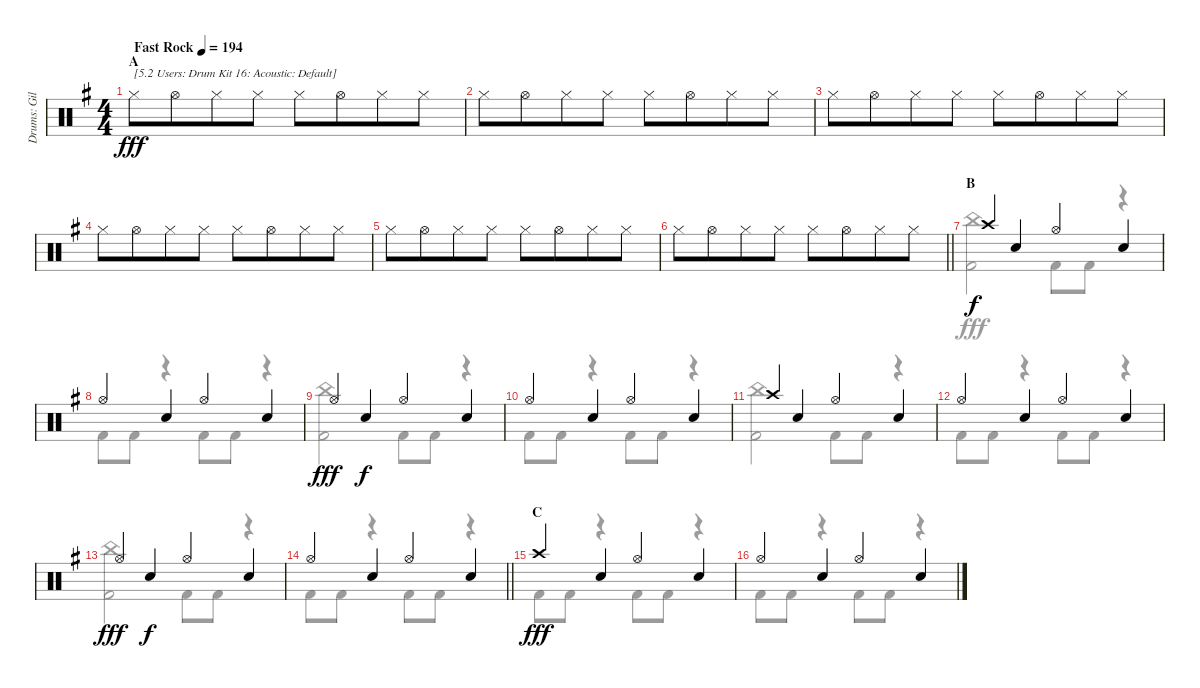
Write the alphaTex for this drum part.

\track ("Drums: Gil" "Drums: Gil") {instrument percussion}
\staff {score}
\articulation defaults
\voice
\ts (4 4)
\section ("" "A")
\tempo (194 "Fast Rock")
\clef neutral
\ks g "Hi-Hat (closed)".8{txt "[5.2 Users: Drum Kit 16: Acoustic: Default]" dy fff volume 0} "Hi-Hat (open)".8{beam merge} "Hi-Hat (closed)".8 "Hi-Hat (closed)".8 "Hi-Hat (closed)".8{volume 12} "Hi-Hat (open)".8{beam merge} "Hi-Hat (closed)".8 "Hi-Hat (closed)".8
|
"Hi-Hat (closed)".8 "Hi-Hat (open)".8{beam merge} "Hi-Hat (closed)".8 "Hi-Hat (closed)".8 "Hi-Hat (closed)".8 "Hi-Hat (open)".8{beam merge} "Hi-Hat (closed)".8 "Hi-Hat (closed)".8 |
"Hi-Hat (closed)".8 "Hi-Hat (open)".8{beam merge} "Hi-Hat (closed)".8 "Hi-Hat (closed)".8 "Hi-Hat (closed)".8 "Hi-Hat (open)".8{beam merge} "Hi-Hat (closed)".8 "Hi-Hat (closed)".8 |
"Hi-Hat (closed)".8 "Hi-Hat (open)".8{beam merge} "Hi-Hat (closed)".8 "Hi-Hat (closed)".8 "Hi-Hat (closed)".8 "Hi-Hat (open)".8{beam merge} "Hi-Hat (closed)".8 "Hi-Hat (closed)".8 |
"Hi-Hat (closed)".8 "Hi-Hat (open)".8{beam merge} "Hi-Hat (closed)".8 "Hi-Hat (closed)".8 "Hi-Hat (closed)".8 "Hi-Hat (open)".8{beam merge} "Hi-Hat (closed)".8 "Hi-Hat (closed)".8 |
\barLineRight lightlight "Hi-Hat (closed)".8 "Hi-Hat (open)".8{beam merge} "Hi-Hat (closed)".8 "Hi-Hat (closed)".8 "Hi-Hat (closed)".8 "Hi-Hat (open)".8{beam merge} "Hi-Hat (closed)".8 "Hi-Hat (closed)".8
|
\section ("" "B")
"Crash high (hit)".4{dy f} "Snare (hit) 2".4 "Hi-Hat (open)".4 "Snare (hit) 2".4 |
"Hi-Hat (open)".4 "Snare (hit) 2".4 "Hi-Hat (open)".4 "Snare (hit) 2".4 |
"Hi-Hat (open)".4{dy fff} "Snare (hit) 2".4{dy f} "Hi-Hat (open)".4 "Snare (hit) 2".4 |
"Hi-Hat (open)".4 "Snare (hit) 2".4 "Hi-Hat (open)".4 "Snare (hit) 2".4 |
"Crash high (hit)".4 "Snare (hit) 2".4 "Hi-Hat (open)".4 "Snare (hit) 2".4 |
"Hi-Hat (open)".4 "Snare (hit) 2".4 "Hi-Hat (open)".4 "Snare (hit) 2".4 |
"Hi-Hat (open)".4{dy fff} "Snare (hit) 2".4{dy f} "Hi-Hat (open)".4 "Snare (hit) 2".4 |
\barLineRight lightlight "Hi-Hat (open)".4 "Snare (hit) 2".4 "Hi-Hat (open)".4 "Snare (hit) 2".4
|
\section ("" "C")
"Crash high (hit)".4{dy fff} "Snare (hit) 2".4 "Hi-Hat (open)".4 "Snare (hit) 2".4 |
"Hi-Hat (open)".4 "Snare (hit) 2".4 "Hi-Hat (open)".4 "Snare (hit) 2".4
\voice
\clef neutral
\ottava regular
\simile none
\ks g
|
|
|
|
|
\barLineRight lightlight
|
("China (hit)" "Kick (hit) 2").2 "Kick (hit) 2".8 "Kick (hit) 2".8{beam merge} r.4 |
"Kick (hit) 2".8 "Kick (hit) 2".8 r.4 "Kick (hit) 2".8 "Kick (hit) 2".8 r.4 |
("China (hit)" "Kick (hit) 2").2 "Kick (hit) 2".8 "Kick (hit) 2".8{beam merge} r.4 |
"Kick (hit) 2".8 "Kick (hit) 2".8 r.4 "Kick (hit) 2".8 "Kick (hit) 2".8 r.4 |
("China (hit)" "Kick (hit) 2").2 "Kick (hit) 2".8 "Kick (hit) 2".8{beam merge} r.4 |
"Kick (hit) 2".8 "Kick (hit) 2".8 r.4 "Kick (hit) 2".8 "Kick (hit) 2".8 r.4 |
("China (hit)" "Kick (hit) 2").2 "Kick (hit) 2".8 "Kick (hit) 2".8{beam merge} r.4 |
\barLineRight lightlight "Kick (hit) 2".8 "Kick (hit) 2".8
r.4 "Kick (hit) 2".8 "Kick (hit) 2".8 r.4 |
"Kick (hit) 2".8 "Kick (hit) 2".8 r.4 "Kick (hit) 2".8 "Kick (hit) 2".8 r.4 |
"Kick (hit) 2".8 "Kick (hit) 2".8 r.4 "Kick (hit) 2".8 "Kick (hit) 2".8 r.4
